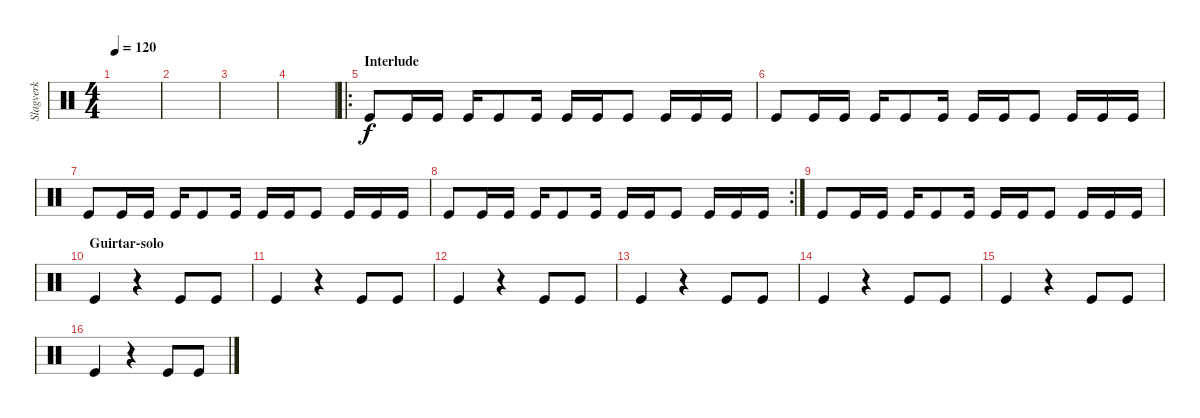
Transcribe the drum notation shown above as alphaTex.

\track ("Slagverk" "Slagverk") {instrument percussion}
\staff {score}
\articulation defaults
\ts (4 4)
\tempo 120
\clef neutral
\ks c
|
|
|
|
\ro
\section ("" "Interlude")
"Kick (hit)".8 "Kick (hit)".16 "Kick (hit)".16 "Kick (hit)".16 "Kick (hit)".8 "Kick (hit)".16 "Kick (hit)".16 "Kick (hit)".16 "Kick (hit)".8 "Kick (hit)".16 "Kick (hit)".16 "Kick (hit)".16 |
"Kick (hit)".8 "Kick (hit)".16 "Kick (hit)".16 "Kick (hit)".16 "Kick (hit)".8 "Kick (hit)".16 "Kick (hit)".16 "Kick (hit)".16 "Kick (hit)".8 "Kick (hit)".16 "Kick (hit)".16 "Kick (hit)".16 |
"Kick (hit)".8 "Kick (hit)".16 "Kick (hit)".16 "Kick (hit)".16 "Kick (hit)".8 "Kick (hit)".16 "Kick (hit)".16 "Kick (hit)".16 "Kick (hit)".8 "Kick (hit)".16 "Kick (hit)".16 "Kick (hit)".16 |
\rc 2 "Kick (hit)".8 "Kick (hit)".16 "Kick (hit)".16 "Kick (hit)".16 "Kick (hit)".8 "Kick (hit)".16 "Kick (hit)".16 "Kick (hit)".16 "Kick (hit)".8 "Kick (hit)".16 "Kick (hit)".16 "Kick (hit)".16
|
"Kick (hit)".8 "Kick (hit)".16 "Kick (hit)".16 "Kick (hit)".16 "Kick (hit)".8 "Kick (hit)".16 "Kick (hit)".16 "Kick (hit)".16 "Kick (hit)".8 "Kick (hit)".16 "Kick (hit)".16 "Kick (hit)".16 |
\section ("" "Guirtar-solo")
"Kick (hit)".4 r.4 "Kick (hit)".8 "Kick (hit)".8 |
"Kick (hit)".4 r.4 "Kick (hit)".8 "Kick (hit)".8 |
"Kick (hit)".4 r.4 "Kick (hit)".8 "Kick (hit)".8 |
"Kick (hit)".4 r.4 "Kick (hit)".8 "Kick (hit)".8 |
"Kick (hit)".4 r.4 "Kick (hit)".8 "Kick (hit)".8 |
"Kick (hit)".4 r.4 "Kick (hit)".8 "Kick (hit)".8 |
"Kick (hit)".4 r.4 "Kick (hit)".8 "Kick (hit)".8
